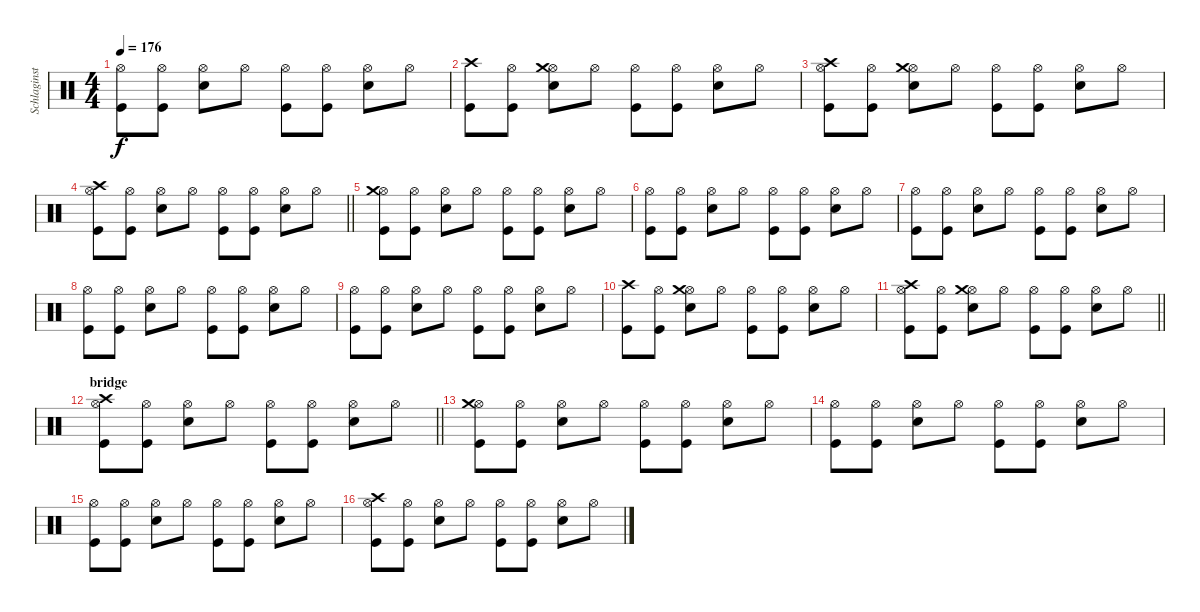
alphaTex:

\track ("Schlaginstrumente - Auswahl" "Schlaginst") {instrument percussion}
\staff {score}
\articulation defaults
\ts (4 4)
\tempo 176
\clef neutral
\ks c
("Hi-Hat (open)" "Kick (hit)").8{dy f} ("Hi-Hat (open)" "Kick (hit)").8 ("Hi-Hat (open)" "Snare (hit) 2").8 "Hi-Hat (open)".8 ("Hi-Hat (open)" "Kick (hit)").8 ("Hi-Hat (open)" "Kick (hit)").8 ("Hi-Hat (open)" "Snare (hit) 2").8 "Hi-Hat (open)".8 |
("Crash high (hit)" "Kick (hit)").8 ("Hi-Hat (open)" "Kick (hit)").8 ("Hi-Hat (open)" "Snare (hit) 2" "Crash medium (hit)").8 "Hi-Hat (open)".8 ("Hi-Hat (open)" "Kick (hit)").8 ("Hi-Hat (open)" "Kick (hit)").8 ("Hi-Hat (open)" "Snare (hit) 2").8 "Hi-Hat (open)".8 |
("Hi-Hat (open)" "Kick (hit)" "Crash high (hit)").8 ("Hi-Hat (open)" "Kick (hit)").8 ("Hi-Hat (open)" "Snare (hit) 2" "Crash medium (hit)").8 "Hi-Hat (open)".8 ("Hi-Hat (open)" "Kick (hit)").8 ("Hi-Hat (open)" "Kick (hit)").8 ("Hi-Hat (open)" "Snare (hit) 2").8 "Hi-Hat (open)".8 |
\barLineRight lightlight
("Kick (hit)" "Hi-Hat (open)" "Crash high (hit)").8 ("Kick (hit)" "Hi-Hat (open)").8 ("Hi-Hat (open)" "Snare (hit) 2").8 "Hi-Hat (open)".8 ("Hi-Hat (open)" "Kick (hit)").8 ("Hi-Hat (open)" "Kick (hit)").8 ("Hi-Hat (open)" "Snare (hit) 2").8 "Hi-Hat (open)".8 |
("Kick (hit)" "Hi-Hat (open)" "Crash medium (hit)").8 ("Kick (hit)" "Hi-Hat (open)").8 ("Hi-Hat (open)" "Snare (hit) 2").8 "Hi-Hat (open)".8 ("Hi-Hat (open)" "Kick (hit)").8 ("Hi-Hat (open)" "Kick (hit)").8 ("Hi-Hat (open)" "Snare (hit) 2").8 "Hi-Hat (open)".8 |
("Hi-Hat (open)" "Kick (hit)").8 ("Hi-Hat (open)" "Kick (hit)").8 ("Hi-Hat (open)" "Snare (hit) 2").8 "Hi-Hat (open)".8 ("Hi-Hat (open)" "Kick (hit)").8 ("Hi-Hat (open)" "Kick (hit)").8 ("Hi-Hat (open)" "Snare (hit) 2").8 "Hi-Hat (open)".8 |
("Hi-Hat (open)" "Kick (hit)").8 ("Hi-Hat (open)" "Kick (hit)").8 ("Hi-Hat (open)" "Snare (hit) 2").8 "Hi-Hat (open)".8 ("Hi-Hat (open)" "Kick (hit)").8 ("Hi-Hat (open)" "Kick (hit)").8 ("Hi-Hat (open)" "Snare (hit) 2").8 "Hi-Hat (open)".8 |
("Hi-Hat (open)" "Kick (hit)").8 ("Hi-Hat (open)" "Kick (hit)").8 ("Hi-Hat (open)" "Snare (hit) 2").8 "Hi-Hat (open)".8 ("Hi-Hat (open)" "Kick (hit)").8 ("Hi-Hat (open)" "Kick (hit)").8 ("Hi-Hat (open)" "Snare (hit) 2").8 "Hi-Hat (open)".8 |
("Hi-Hat (open)" "Kick (hit)").8 ("Hi-Hat (open)" "Kick (hit)").8 ("Hi-Hat (open)" "Snare (hit) 2").8 "Hi-Hat (open)".8 ("Hi-Hat (open)" "Kick (hit)").8 ("Hi-Hat (open)" "Kick (hit)").8 ("Hi-Hat (open)" "Snare (hit) 2").8 "Hi-Hat (open)".8 |
("Crash high (hit)" "Kick (hit)").8 ("Hi-Hat (open)" "Kick (hit)").8 ("Hi-Hat (open)" "Snare (hit) 2" "Crash medium (hit)").8 "Hi-Hat (open)".8 ("Hi-Hat (open)" "Kick (hit)").8 ("Hi-Hat (open)" "Kick (hit)").8 ("Hi-Hat (open)" "Snare (hit) 2").8 "Hi-Hat (open)".8 |
\barLineRight lightlight
("Hi-Hat (open)" "Kick (hit)" "Crash high (hit)").8 ("Hi-Hat (open)" "Kick (hit)").8 ("Hi-Hat (open)" "Snare (hit) 2" "Crash medium (hit)").8 "Hi-Hat (open)".8 ("Hi-Hat (open)" "Kick (hit)").8 ("Hi-Hat (open)" "Kick (hit)").8 ("Hi-Hat (open)" "Snare (hit) 2").8 "Hi-Hat (open)".8 |
\section ("" "bridge")
\barLineRight lightlight
("Kick (hit)" "Hi-Hat (open)" "Crash high (hit)").8 ("Kick (hit)" "Hi-Hat (open)").8 ("Hi-Hat (open)" "Snare (hit) 2").8 "Hi-Hat (open)".8 ("Hi-Hat (open)" "Kick (hit)").8 ("Hi-Hat (open)" "Kick (hit)").8 ("Hi-Hat (open)" "Snare (hit) 2").8 "Hi-Hat (open)".8 |
("Kick (hit)" "Hi-Hat (open)" "Crash medium (hit)").8 ("Kick (hit)" "Hi-Hat (open)").8 ("Hi-Hat (open)" "Snare (hit) 2").8 "Hi-Hat (open)".8 ("Hi-Hat (open)" "Kick (hit)").8 ("Hi-Hat (open)" "Kick (hit)").8 ("Hi-Hat (open)" "Snare (hit) 2").8 "Hi-Hat (open)".8 |
("Hi-Hat (open)" "Kick (hit)").8 ("Hi-Hat (open)" "Kick (hit)").8 ("Hi-Hat (open)" "Snare (hit) 2").8 "Hi-Hat (open)".8 ("Hi-Hat (open)" "Kick (hit)").8 ("Hi-Hat (open)" "Kick (hit)").8 ("Hi-Hat (open)" "Snare (hit) 2").8 "Hi-Hat (open)".8 |
("Hi-Hat (open)" "Kick (hit)").8 ("Hi-Hat (open)" "Kick (hit)").8 ("Hi-Hat (open)" "Snare (hit) 2").8 "Hi-Hat (open)".8 ("Hi-Hat (open)" "Kick (hit)").8 ("Hi-Hat (open)" "Kick (hit)").8 ("Hi-Hat (open)" "Snare (hit) 2").8 "Hi-Hat (open)".8 |
("Hi-Hat (open)" "Kick (hit)" "Crash high (hit)").8 ("Hi-Hat (open)" "Kick (hit)").8 ("Hi-Hat (open)" "Snare (hit) 2").8 "Hi-Hat (open)".8 ("Hi-Hat (open)" "Kick (hit)").8 ("Hi-Hat (open)" "Kick (hit)").8 ("Hi-Hat (open)" "Snare (hit) 2").8 "Hi-Hat (open)".8
